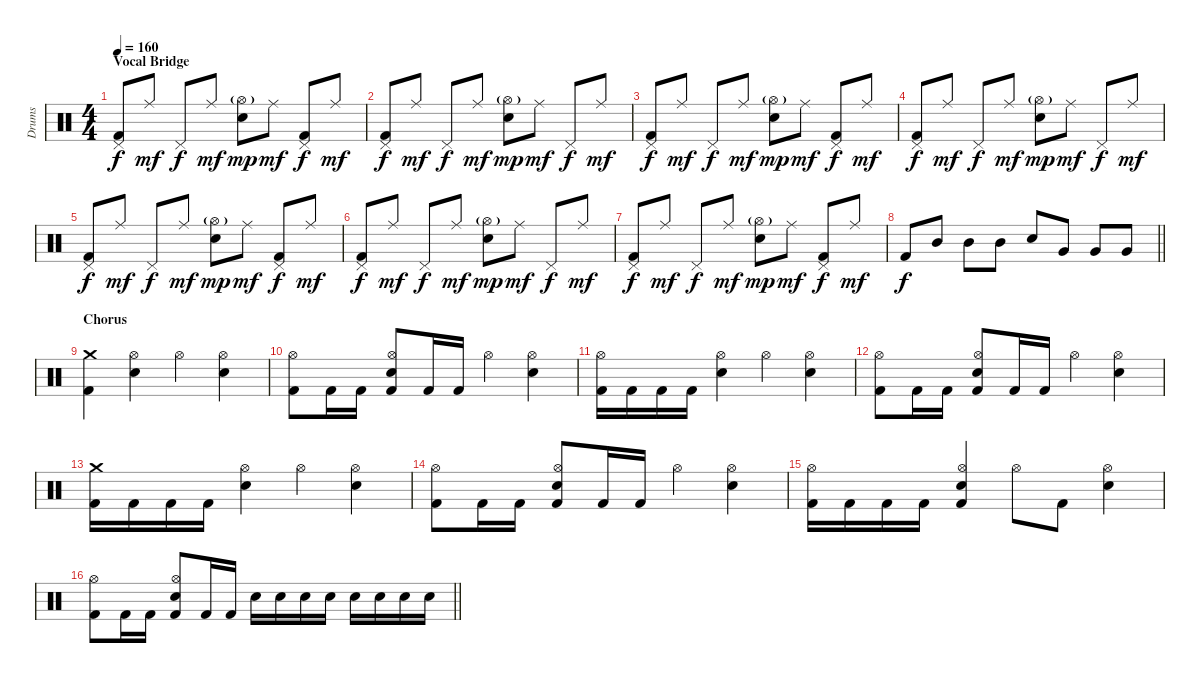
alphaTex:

\track ("Drums" "Drums") {instrument percussion}
\staff {score}
\articulation defaults
\ts (4 4)
\section ("" "Vocal Bridge")
\tempo 160
\clef neutral
\ks aminor
("Pedal Hi-Hat (hit)" "Kick (hit) 2").8{dy f} "Ride (middle)".8{dy mf} "Pedal Hi-Hat (hit)".8{dy f} "Ride (middle)".8{dy mf} ("Hi-Hat (open)"{g} "Electric Snare (hit)").8{dy mp} "Ride (middle)".8{dy mf} ("Pedal Hi-Hat (hit)" "Kick (hit) 2").8{dy f} "Ride (middle)".8{dy mf} |
("Pedal Hi-Hat (hit)" "Kick (hit) 2").8{dy f} "Ride (middle)".8{dy mf} "Pedal Hi-Hat (hit)".8{dy f} "Ride (middle)".8{dy mf} ("Hi-Hat (open)"{g} "Electric Snare (hit)").8{dy mp} "Ride (middle)".8{dy mf} "Pedal Hi-Hat (hit)".8{dy f} "Ride (middle)".8{dy mf} |
("Pedal Hi-Hat (hit)" "Kick (hit) 2").8{dy f} "Ride (middle)".8{dy mf} "Pedal Hi-Hat (hit)".8{dy f} "Ride (middle)".8{dy mf} ("Hi-Hat (open)"{g} "Electric Snare (hit)").8{dy mp} "Ride (middle)".8{dy mf} ("Pedal Hi-Hat (hit)" "Kick (hit) 2").8{dy f} "Ride (middle)".8{dy mf} |
("Pedal Hi-Hat (hit)" "Kick (hit) 2").8{dy f} "Ride (middle)".8{dy mf} "Pedal Hi-Hat (hit)".8{dy f} "Ride (middle)".8{dy mf} ("Hi-Hat (open)"{g} "Electric Snare (hit)").8{dy mp} "Ride (middle)".8{dy mf} "Pedal Hi-Hat (hit)".8{dy f} "Ride (middle)".8{dy mf} |
("Pedal Hi-Hat (hit)" "Kick (hit) 2").8{dy f} "Ride (middle)".8{dy mf} "Pedal Hi-Hat (hit)".8{dy f} "Ride (middle)".8{dy mf} ("Hi-Hat (open)"{g} "Electric Snare (hit)").8{dy mp} "Ride (middle)".8{dy mf} ("Pedal Hi-Hat (hit)" "Kick (hit) 2").8{dy f} "Ride (middle)".8{dy mf} |
("Pedal Hi-Hat (hit)" "Kick (hit) 2").8{dy f} "Ride (middle)".8{dy mf} "Pedal Hi-Hat (hit)".8{dy f} "Ride (middle)".8{dy mf} ("Hi-Hat (open)"{g} "Electric Snare (hit)").8{dy mp} "Ride (middle)".8{dy mf} "Pedal Hi-Hat (hit)".8{dy f} "Ride (middle)".8{dy mf} |
("Pedal Hi-Hat (hit)" "Kick (hit) 2").8{dy f} "Ride (middle)".8{dy mf} "Pedal Hi-Hat (hit)".8{dy f} "Ride (middle)".8{dy mf} ("Hi-Hat (open)"{g} "Electric Snare (hit)").8{dy mp} "Ride (middle)".8{dy mf} ("Pedal Hi-Hat (hit)" "Kick (hit) 2").8{dy f} "Ride (middle)".8{dy mf} |
\barLineRight lightlight "Kick (hit) 2".8{dy f} "Mid Tom (hit)".8 "Mid Tom (hit)".8 "Mid Tom (hit)".8 "Snare (hit) 2".8 "Very Low Tom (hit)".8 "Very Low Tom (hit)".8 "Very Low Tom (hit)".8
|
\section ("" "Chorus")
("Crash medium (hit)" "Kick (hit) 2").4 ("Hi-Hat (open)" "Electric Snare (hit)").4 "Hi-Hat (open)".4 ("Hi-Hat (open)" "Electric Snare (hit)").4 |
("Hi-Hat (open)" "Kick (hit) 2").8 "Kick (hit) 2".16 "Kick (hit) 2".16 ("Hi-Hat (open)" "Electric Snare (hit)" "Kick (hit) 2").8 "Kick (hit) 2".16 "Kick (hit) 2".16 "Hi-Hat (open)".4 ("Hi-Hat (open)" "Electric Snare (hit)").4 |
("Hi-Hat (open)" "Kick (hit) 2").16 "Kick (hit) 2".16 "Kick (hit) 2".16 "Kick (hit) 2".16 ("Hi-Hat (open)" "Electric Snare (hit)").4 "Hi-Hat (open)".4 ("Hi-Hat (open)" "Electric Snare (hit)").4 |
("Hi-Hat (open)" "Kick (hit) 2").8 "Kick (hit) 2".16 "Kick (hit) 2".16 ("Hi-Hat (open)" "Electric Snare (hit)" "Kick (hit) 2").8 "Kick (hit) 2".16 "Kick (hit) 2".16 "Hi-Hat (open)".4 ("Hi-Hat (open)" "Electric Snare (hit)").4 |
("Crash medium (hit)" "Kick (hit) 2").16 "Kick (hit) 2".16 "Kick (hit) 2".16 "Kick (hit) 2".16 ("Hi-Hat (open)" "Electric Snare (hit)").4 "Hi-Hat (open)".4 ("Hi-Hat (open)" "Electric Snare (hit)").4 |
("Hi-Hat (open)" "Kick (hit) 2").8 "Kick (hit) 2".16 "Kick (hit) 2".16 ("Hi-Hat (open)" "Electric Snare (hit)" "Kick (hit) 2").8 "Kick (hit) 2".16 "Kick (hit) 2".16 "Hi-Hat (open)".4 ("Hi-Hat (open)" "Electric Snare (hit)").4 |
("Hi-Hat (open)" "Kick (hit) 2").16 "Kick (hit) 2".16 "Kick (hit) 2".16 "Kick (hit) 2".16 ("Hi-Hat (open)" "Electric Snare (hit)" "Kick (hit) 2").4 "Hi-Hat (open)".8 "Kick (hit) 2".8 ("Hi-Hat (open)" "Electric Snare (hit)").4 |
\barLineRight lightlight
("Hi-Hat (open)" "Kick (hit) 2").8 "Kick (hit) 2".16 "Kick (hit) 2".16 ("Hi-Hat (open)" "Electric Snare (hit)" "Kick (hit) 2").8 "Kick (hit) 2".16 "Kick (hit) 2".16 "Electric Snare (hit)".16 "Snare (hit) 2".16 "Snare (hit) 2".16 "Electric Snare (hit)".16 "Electric Snare (hit)".16 "Snare (hit) 2".16 "Snare (hit) 2".16 "Electric Snare (hit)".16
